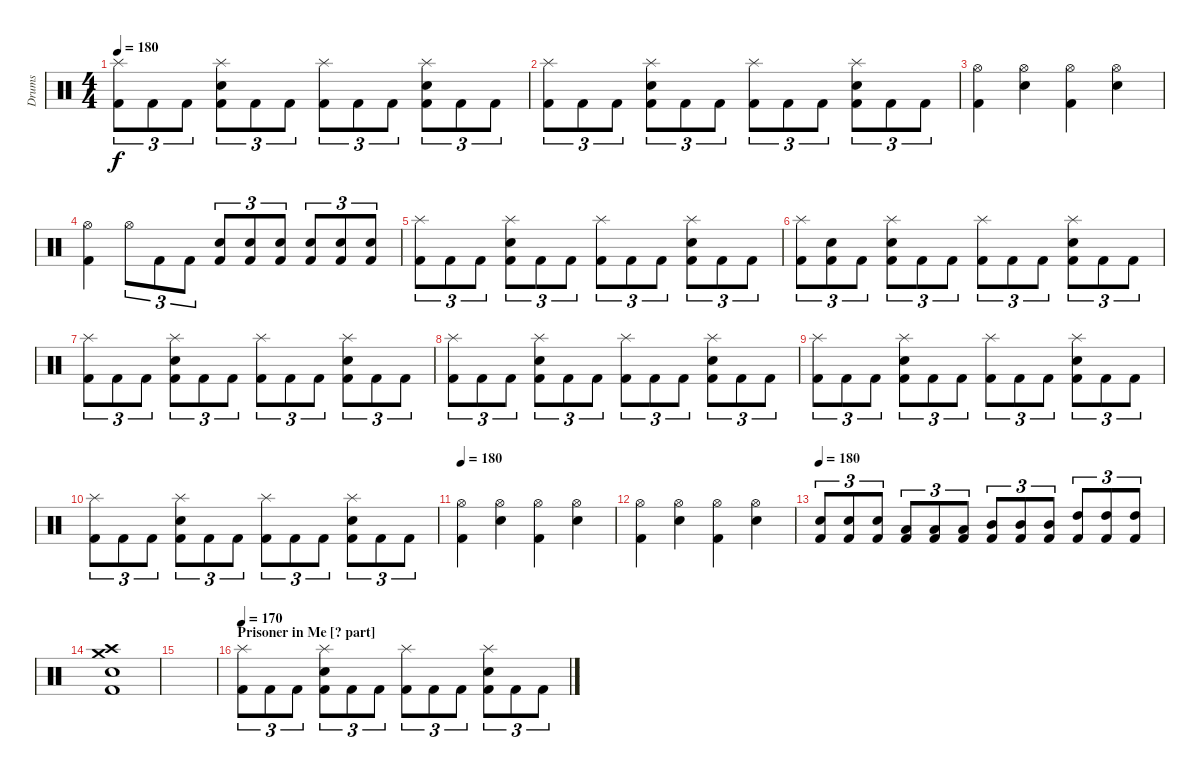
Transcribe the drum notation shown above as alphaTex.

\track ("Drums" "Drums") {instrument percussion}
\staff {score}
\articulation defaults
\ts (4 4)
\tempo 180
\clef neutral
\ks c
("Splash (hit)" "Kick (hit) 2").8{tu (3 2) dy f} "Kick (hit) 2".8{tu (3 2)} "Kick (hit) 2".8{tu (3 2)} ("Splash (hit)" "Electric Snare (hit)" "Kick (hit) 2").8{tu (3 2)} "Kick (hit) 2".8{tu (3 2)} "Kick (hit) 2".8{tu (3 2)} ("Splash (hit)" "Kick (hit) 2").8{tu (3 2)} "Kick (hit) 2".8{tu (3 2)} "Kick (hit) 2".8{tu (3 2)} ("Splash (hit)" "Electric Snare (hit)" "Kick (hit) 2").8{tu (3 2)} "Kick (hit) 2".8{tu (3 2)} "Kick (hit) 2".8{tu (3 2)} |
("Splash (hit)" "Kick (hit) 2").8{tu (3 2)} "Kick (hit) 2".8{tu (3 2)} "Kick (hit) 2".8{tu (3 2)} ("Splash (hit)" "Electric Snare (hit)" "Kick (hit) 2").8{tu (3 2)} "Kick (hit) 2".8{tu (3 2)} "Kick (hit) 2".8{tu (3 2)} ("Splash (hit)" "Kick (hit) 2").8{tu (3 2)} "Kick (hit) 2".8{tu (3 2)} "Kick (hit) 2".8{tu (3 2)} ("Splash (hit)" "Electric Snare (hit)" "Kick (hit) 2").8{tu (3 2)} "Kick (hit) 2".8{tu (3 2)} "Kick (hit) 2".8{tu (3 2)} |
("Hi-Hat (open)" "Kick (hit) 2").4 ("Hi-Hat (open)" "Electric Snare (hit)").4 ("Hi-Hat (open)" "Kick (hit) 2").4 ("Hi-Hat (open)" "Electric Snare (hit)").4 |
("Hi-Hat (open)" "Kick (hit) 2").4 "Hi-Hat (open)".8{tu (3 2)} "Kick (hit) 2".8{tu (3 2)} "Kick (hit) 2".8{tu (3 2)} ("Electric Snare (hit)" "Kick (hit) 2").8{tu (3 2)} ("Electric Snare (hit)" "Kick (hit) 2").8{tu (3 2)} ("Electric Snare (hit)" "Kick (hit) 2").8{tu (3 2)} ("Electric Snare (hit)" "Kick (hit) 2").8{tu (3 2)} ("Electric Snare (hit)" "Kick (hit) 2").8{tu (3 2)} ("Electric Snare (hit)" "Kick (hit) 2").8{tu (3 2)} |
("Splash (hit)" "Kick (hit) 2").8{tu (3 2)} "Kick (hit) 2".8{tu (3 2)} "Kick (hit) 2".8{tu (3 2)} ("Splash (hit)" "Electric Snare (hit)" "Kick (hit) 2").8{tu (3 2)} "Kick (hit) 2".8{tu (3 2)} "Kick (hit) 2".8{tu (3 2)} ("Splash (hit)" "Kick (hit) 2").8{tu (3 2)} "Kick (hit) 2".8{tu (3 2)} "Kick (hit) 2".8{tu (3 2)} ("Splash (hit)" "Electric Snare (hit)" "Kick (hit) 2").8{tu (3 2)} "Kick (hit) 2".8{tu (3 2)} "Kick (hit) 2".8{tu (3 2)} |
("Splash (hit)" "Kick (hit) 2").8{tu (3 2)} ("Snare (hit)" "Kick (hit) 2").8{tu (3 2)} "Kick (hit) 2".8{tu (3 2)} ("Splash (hit)" "Electric Snare (hit)" "Kick (hit) 2").8{tu (3 2)} "Kick (hit) 2".8{tu (3 2)} "Kick (hit) 2".8{tu (3 2)} ("Splash (hit)" "Kick (hit) 2").8{tu (3 2)} "Kick (hit) 2".8{tu (3 2)} "Kick (hit) 2".8{tu (3 2)} ("Splash (hit)" "Electric Snare (hit)" "Kick (hit) 2").8{tu (3 2)} "Kick (hit) 2".8{tu (3 2)} "Kick (hit) 2".8{tu (3 2)} |
("Splash (hit)" "Kick (hit) 2").8{tu (3 2)} "Kick (hit) 2".8{tu (3 2)} "Kick (hit) 2".8{tu (3 2)} ("Splash (hit)" "Electric Snare (hit)" "Kick (hit) 2").8{tu (3 2)} "Kick (hit) 2".8{tu (3 2)} "Kick (hit) 2".8{tu (3 2)} ("Splash (hit)" "Kick (hit) 2").8{tu (3 2)} "Kick (hit) 2".8{tu (3 2)} "Kick (hit) 2".8{tu (3 2)} ("Splash (hit)" "Electric Snare (hit)" "Kick (hit) 2").8{tu (3 2)} "Kick (hit) 2".8{tu (3 2)} "Kick (hit) 2".8{tu (3 2)} |
("Splash (hit)" "Kick (hit) 2").8{tu (3 2)} "Kick (hit) 2".8{tu (3 2)} "Kick (hit) 2".8{tu (3 2)} ("Splash (hit)" "Electric Snare (hit)" "Kick (hit) 2").8{tu (3 2)} "Kick (hit) 2".8{tu (3 2)} "Kick (hit) 2".8{tu (3 2)} ("Splash (hit)" "Kick (hit) 2").8{tu (3 2)} "Kick (hit) 2".8{tu (3 2)} "Kick (hit) 2".8{tu (3 2)} ("Splash (hit)" "Electric Snare (hit)" "Kick (hit) 2").8{tu (3 2)} "Kick (hit) 2".8{tu (3 2)} "Kick (hit) 2".8{tu (3 2)} |
("Splash (hit)" "Kick (hit) 2").8{tu (3 2)} "Kick (hit) 2".8{tu (3 2)} "Kick (hit) 2".8{tu (3 2)} ("Splash (hit)" "Electric Snare (hit)" "Kick (hit) 2").8{tu (3 2)} "Kick (hit) 2".8{tu (3 2)} "Kick (hit) 2".8{tu (3 2)} ("Splash (hit)" "Kick (hit) 2").8{tu (3 2)} "Kick (hit) 2".8{tu (3 2)} "Kick (hit) 2".8{tu (3 2)} ("Splash (hit)" "Electric Snare (hit)" "Kick (hit) 2").8{tu (3 2)} "Kick (hit) 2".8{tu (3 2)} "Kick (hit) 2".8{tu (3 2)} |
("Splash (hit)" "Kick (hit) 2").8{tu (3 2)} "Kick (hit) 2".8{tu (3 2)} "Kick (hit) 2".8{tu (3 2)} ("Splash (hit)" "Electric Snare (hit)" "Kick (hit) 2").8{tu (3 2)} "Kick (hit) 2".8{tu (3 2)} "Kick (hit) 2".8{tu (3 2)} ("Splash (hit)" "Kick (hit) 2").8{tu (3 2)} "Kick (hit) 2".8{tu (3 2)} "Kick (hit) 2".8{tu (3 2)} ("Splash (hit)" "Electric Snare (hit)" "Kick (hit) 2").8{tu (3 2)} "Kick (hit) 2".8{tu (3 2)} "Kick (hit) 2".8{tu (3 2)} |
\tempo 180
("Hi-Hat (open)" "Kick (hit) 2").4 ("Hi-Hat (open)" "Electric Snare (hit)").4 ("Hi-Hat (open)" "Kick (hit) 2").4 ("Hi-Hat (open)" "Electric Snare (hit)").4 |
("Hi-Hat (open)" "Kick (hit) 2").4 ("Hi-Hat (open)" "Electric Snare (hit)").4 ("Hi-Hat (open)" "Kick (hit) 2").4 ("Hi-Hat (open)" "Electric Snare (hit)").4 |
\tempo 180
("Electric Snare (hit)" "Kick (hit) 2").8{tu (3 2)} ("Electric Snare (hit)" "Kick (hit) 2").8{tu (3 2)} ("Electric Snare (hit)" "Kick (hit) 2").8{tu (3 2)} ("Low Tom (hit)" "Kick (hit) 2").8{tu (3 2)} ("Low Tom (hit)" "Kick (hit) 2").8{tu (3 2)} ("Low Tom (hit)" "Kick (hit) 2").8{tu (3 2)} ("Mid Tom (hit)" "Kick (hit) 2").8{tu (3 2)} ("Mid Tom (hit)" "Kick (hit) 2").8{tu (3 2)} ("Mid Tom (hit)" "Kick (hit) 2").8{tu (3 2)} ("High Tom (hit)" "Kick (hit) 2").8{tu (3 2)} ("High Tom (hit)" "Kick (hit) 2").8{tu (3 2)} ("High Tom (hit)" "Kick (hit) 2").8{tu (3 2)} |
("Crash high (hit)" "Crash medium (hit)" "Electric Snare (hit)" "Kick (hit) 2").1 |
|
\section ("" "Prisoner in Me [? part]")
\tempo 170
("Splash (hit)" "Kick (hit) 2").8{tu (3 2)} "Kick (hit) 2".8{tu (3 2)} "Kick (hit) 2".8{tu (3 2)} ("Splash (hit)" "Electric Snare (hit)" "Kick (hit) 2").8{tu (3 2)} "Kick (hit) 2".8{tu (3 2)} "Kick (hit) 2".8{tu (3 2)} ("Splash (hit)" "Kick (hit) 2").8{tu (3 2)} "Kick (hit) 2".8{tu (3 2)} "Kick (hit) 2".8{tu (3 2)} ("Splash (hit)" "Electric Snare (hit)" "Kick (hit) 2").8{tu (3 2)} "Kick (hit) 2".8{tu (3 2)} "Kick (hit) 2".8{tu (3 2)}
